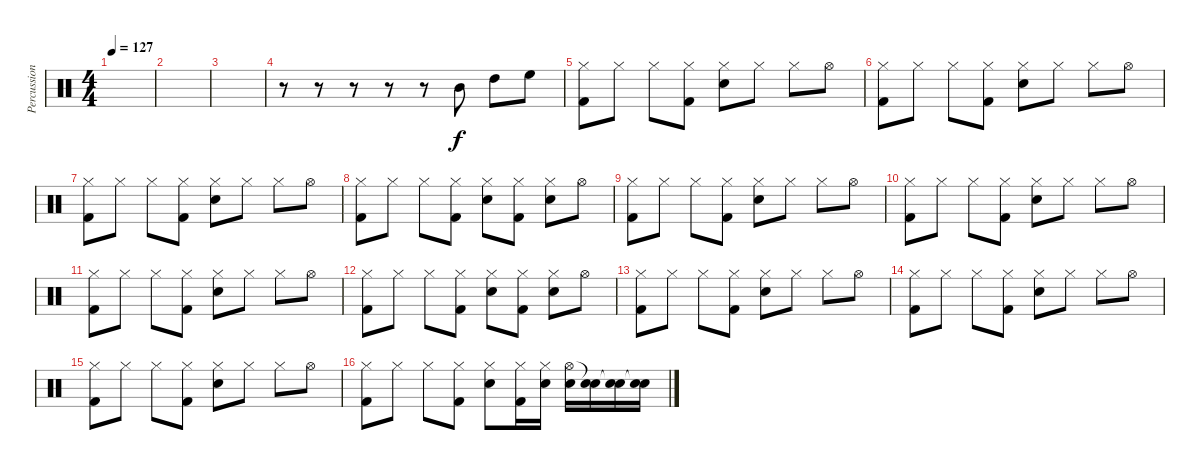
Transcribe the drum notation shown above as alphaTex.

\track ("Percussions" "Percussion") {instrument percussion}
\staff {score}
\articulation defaults
\ts (4 4)
\tempo 127
\clef neutral
\ks c
|
|
|
r.8 r.8 r.8 r.8 r.8 "Mid Tom (hit)".8 "High Tom (hit)".8 "High Floor Tom (hit)".8 |
("Kick (hit) 2" "Hi-Hat (closed)").8{dy f} "Hi-Hat (closed)".8 "Hi-Hat (closed)".8 ("Kick (hit) 2" "Hi-Hat (closed)").8 ("Electric Snare (hit)" "Hi-Hat (closed)").8 "Hi-Hat (closed)".8 "Hi-Hat (closed)".8 "Hi-Hat (open)".8 |
("Kick (hit) 2" "Hi-Hat (closed)").8 "Hi-Hat (closed)".8 "Hi-Hat (closed)".8 ("Kick (hit) 2" "Hi-Hat (closed)").8 ("Electric Snare (hit)" "Hi-Hat (closed)").8 "Hi-Hat (closed)".8 "Hi-Hat (closed)".8 "Hi-Hat (open)".8 |
("Kick (hit) 2" "Hi-Hat (closed)").8 "Hi-Hat (closed)".8 "Hi-Hat (closed)".8 ("Kick (hit) 2" "Hi-Hat (closed)").8 ("Electric Snare (hit)" "Hi-Hat (closed)").8 "Hi-Hat (closed)".8 "Hi-Hat (closed)".8 "Hi-Hat (open)".8 |
("Kick (hit) 2" "Hi-Hat (closed)").8 "Hi-Hat (closed)".8 "Hi-Hat (closed)".8 ("Kick (hit) 2" "Hi-Hat (closed)").8 ("Electric Snare (hit)" "Hi-Hat (closed)").8 ("Kick (hit) 2" "Hi-Hat (closed)").8 ("Electric Snare (hit)" "Hi-Hat (closed)").8 "Hi-Hat (open)".8 |
("Kick (hit) 2" "Hi-Hat (closed)").8 "Hi-Hat (closed)".8 "Hi-Hat (closed)".8 ("Kick (hit) 2" "Hi-Hat (closed)").8 ("Electric Snare (hit)" "Hi-Hat (closed)").8 "Hi-Hat (closed)".8 "Hi-Hat (closed)".8 "Hi-Hat (open)".8 |
("Kick (hit) 2" "Hi-Hat (closed)").8 "Hi-Hat (closed)".8 "Hi-Hat (closed)".8 ("Kick (hit) 2" "Hi-Hat (closed)").8 ("Electric Snare (hit)" "Hi-Hat (closed)").8 "Hi-Hat (closed)".8 "Hi-Hat (closed)".8 "Hi-Hat (open)".8 |
("Kick (hit) 2" "Hi-Hat (closed)").8 "Hi-Hat (closed)".8 "Hi-Hat (closed)".8 ("Kick (hit) 2" "Hi-Hat (closed)").8 ("Electric Snare (hit)" "Hi-Hat (closed)").8 "Hi-Hat (closed)".8 "Hi-Hat (closed)".8 "Hi-Hat (open)".8 |
("Kick (hit) 2" "Hi-Hat (closed)").8 "Hi-Hat (closed)".8 "Hi-Hat (closed)".8 ("Kick (hit) 2" "Hi-Hat (closed)").8 ("Electric Snare (hit)" "Hi-Hat (closed)").8 ("Kick (hit) 2" "Hi-Hat (closed)").8 ("Electric Snare (hit)" "Hi-Hat (closed)").8 "Hi-Hat (open)".8 |
("Kick (hit) 2" "Hi-Hat (closed)").8 "Hi-Hat (closed)".8 "Hi-Hat (closed)".8 ("Kick (hit) 2" "Hi-Hat (closed)").8 ("Electric Snare (hit)" "Hi-Hat (closed)").8 "Hi-Hat (closed)".8 "Hi-Hat (closed)".8 "Hi-Hat (open)".8 |
("Kick (hit) 2" "Hi-Hat (closed)").8 "Hi-Hat (closed)".8 "Hi-Hat (closed)".8 ("Kick (hit) 2" "Hi-Hat (closed)").8 ("Electric Snare (hit)" "Hi-Hat (closed)").8 "Hi-Hat (closed)".8 "Hi-Hat (closed)".8 "Hi-Hat (open)".8 |
("Kick (hit) 2" "Hi-Hat (closed)").8 "Hi-Hat (closed)".8 "Hi-Hat (closed)".8 ("Kick (hit) 2" "Hi-Hat (closed)").8 ("Electric Snare (hit)" "Hi-Hat (closed)").8 "Hi-Hat (closed)".8 "Hi-Hat (closed)".8 "Hi-Hat (open)".8 |
("Kick (hit) 2" "Hi-Hat (closed)").8 "Hi-Hat (closed)".8 "Hi-Hat (closed)".8 ("Kick (hit) 2" "Hi-Hat (closed)").8 ("Electric Snare (hit)" "Hi-Hat (closed)").8 ("Kick (hit) 2" "Hi-Hat (closed)").16 ("Electric Snare (hit)" "Hi-Hat (closed)").16 ("Electric Snare (hit)" "Hi-Hat (open)").16 ("Electric Snare (hit)" "Snare (hit)"{t}).16 ("Electric Snare (hit)" "Snare (hit)"{t}).16 ("Electric Snare (hit)" "Snare (hit)"{t}).16
